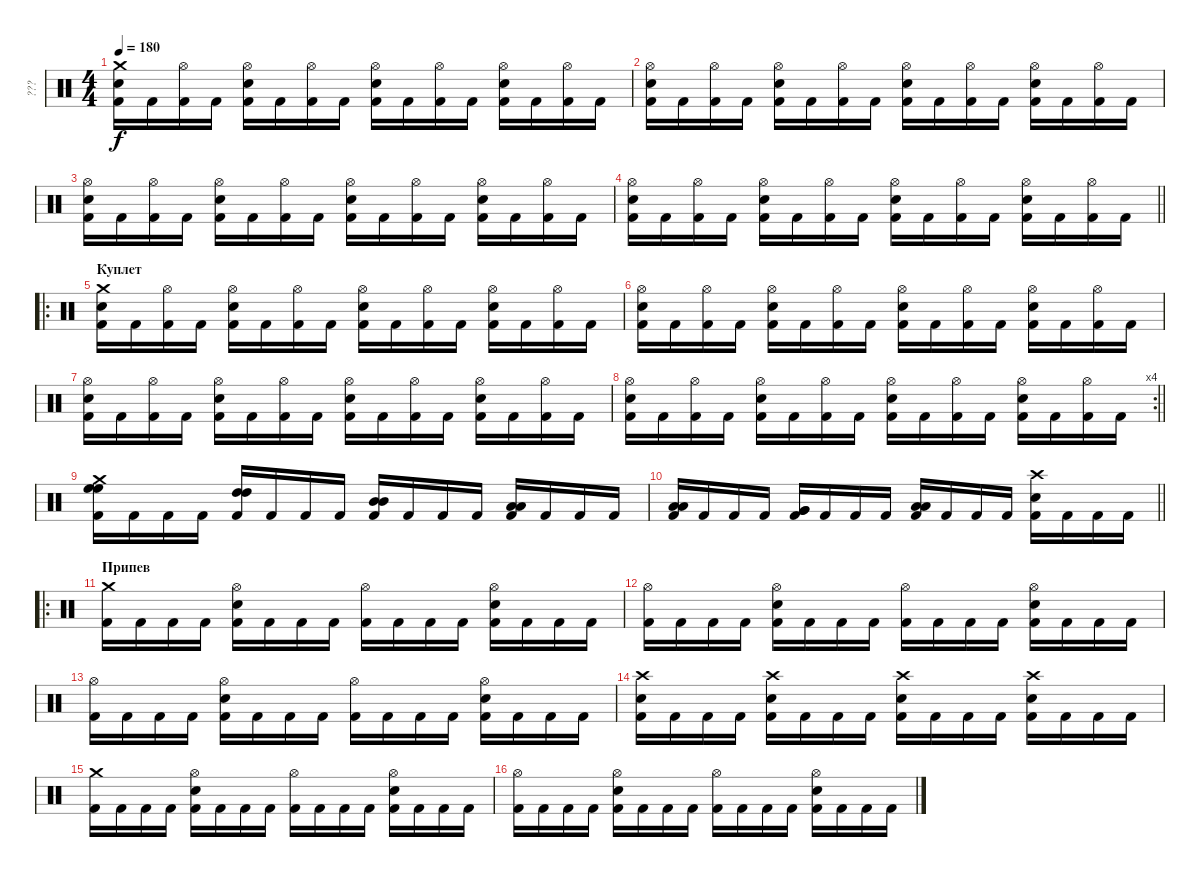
\track ("???" "???") {instrument percussion}
\staff {score}
\articulation defaults
\ts (4 4)
\tempo 180
\clef neutral
\ks c
("Crash medium (hit)" "Kick (hit) 2" "Snare (hit) 2").16{dy f} "Kick (hit) 2".16 ("Hi-Hat (open)" "Kick (hit) 2").16 "Kick (hit) 2".16 ("Hi-Hat (open)" "Kick (hit) 2" "Snare (hit) 2").16 "Kick (hit) 2".16 ("Hi-Hat (open)" "Kick (hit) 2").16 "Kick (hit) 2".16 ("Hi-Hat (open)" "Kick (hit) 2" "Snare (hit) 2").16 "Kick (hit) 2".16 ("Hi-Hat (open)" "Kick (hit) 2").16 "Kick (hit) 2".16 ("Hi-Hat (open)" "Kick (hit) 2" "Snare (hit) 2").16 "Kick (hit) 2".16 ("Hi-Hat (open)" "Kick (hit) 2").16 "Kick (hit) 2".16 |
("Hi-Hat (open)" "Kick (hit) 2" "Snare (hit) 2").16 "Kick (hit) 2".16 ("Hi-Hat (open)" "Kick (hit) 2").16 "Kick (hit) 2".16 ("Hi-Hat (open)" "Kick (hit) 2" "Snare (hit) 2").16 "Kick (hit) 2".16 ("Hi-Hat (open)" "Kick (hit) 2").16 "Kick (hit) 2".16 ("Hi-Hat (open)" "Kick (hit) 2" "Snare (hit) 2").16 "Kick (hit) 2".16 ("Hi-Hat (open)" "Kick (hit) 2").16 "Kick (hit) 2".16 ("Hi-Hat (open)" "Kick (hit) 2" "Snare (hit) 2").16 "Kick (hit) 2".16 ("Hi-Hat (open)" "Kick (hit) 2").16 "Kick (hit) 2".16 |
("Hi-Hat (open)" "Kick (hit) 2" "Snare (hit) 2").16 "Kick (hit) 2".16 ("Hi-Hat (open)" "Kick (hit) 2").16 "Kick (hit) 2".16 ("Hi-Hat (open)" "Kick (hit) 2" "Snare (hit) 2").16 "Kick (hit) 2".16 ("Hi-Hat (open)" "Kick (hit) 2").16 "Kick (hit) 2".16 ("Hi-Hat (open)" "Kick (hit) 2" "Snare (hit) 2").16 "Kick (hit) 2".16 ("Hi-Hat (open)" "Kick (hit) 2").16 "Kick (hit) 2".16 ("Hi-Hat (open)" "Kick (hit) 2" "Snare (hit) 2").16 "Kick (hit) 2".16 ("Hi-Hat (open)" "Kick (hit) 2").16 "Kick (hit) 2".16 |
\barLineRight lightlight
("Hi-Hat (open)" "Kick (hit) 2" "Snare (hit) 2").16 "Kick (hit) 2".16 ("Hi-Hat (open)" "Kick (hit) 2").16 "Kick (hit) 2".16 ("Hi-Hat (open)" "Kick (hit) 2" "Snare (hit) 2").16 "Kick (hit) 2".16 ("Hi-Hat (open)" "Kick (hit) 2").16 "Kick (hit) 2".16 ("Hi-Hat (open)" "Kick (hit) 2" "Snare (hit) 2").16 "Kick (hit) 2".16 ("Hi-Hat (open)" "Kick (hit) 2").16 "Kick (hit) 2".16 ("Hi-Hat (open)" "Kick (hit) 2" "Snare (hit) 2").16 "Kick (hit) 2".16 ("Hi-Hat (open)" "Kick (hit) 2").16 "Kick (hit) 2".16 |
\ro
\section ("" "Куплет")
("Crash medium (hit)" "Kick (hit) 2" "Snare (hit) 2").16 "Kick (hit) 2".16 ("Hi-Hat (open)" "Kick (hit) 2").16 "Kick (hit) 2".16 ("Hi-Hat (open)" "Kick (hit) 2" "Snare (hit) 2").16 "Kick (hit) 2".16 ("Hi-Hat (open)" "Kick (hit) 2").16 "Kick (hit) 2".16 ("Hi-Hat (open)" "Kick (hit) 2" "Snare (hit) 2").16 "Kick (hit) 2".16 ("Hi-Hat (open)" "Kick (hit) 2").16 "Kick (hit) 2".16 ("Hi-Hat (open)" "Kick (hit) 2" "Snare (hit) 2").16 "Kick (hit) 2".16 ("Hi-Hat (open)" "Kick (hit) 2").16 "Kick (hit) 2".16 |
("Hi-Hat (open)" "Kick (hit) 2" "Snare (hit) 2").16 "Kick (hit) 2".16 ("Hi-Hat (open)" "Kick (hit) 2").16 "Kick (hit) 2".16 ("Hi-Hat (open)" "Kick (hit) 2" "Snare (hit) 2").16 "Kick (hit) 2".16 ("Hi-Hat (open)" "Kick (hit) 2").16 "Kick (hit) 2".16 ("Hi-Hat (open)" "Kick (hit) 2" "Snare (hit) 2").16 "Kick (hit) 2".16 ("Hi-Hat (open)" "Kick (hit) 2").16 "Kick (hit) 2".16 ("Hi-Hat (open)" "Kick (hit) 2" "Snare (hit) 2").16 "Kick (hit) 2".16 ("Hi-Hat (open)" "Kick (hit) 2").16 "Kick (hit) 2".16 |
("Hi-Hat (open)" "Kick (hit) 2" "Snare (hit) 2").16 "Kick (hit) 2".16 ("Hi-Hat (open)" "Kick (hit) 2").16 "Kick (hit) 2".16 ("Hi-Hat (open)" "Kick (hit) 2" "Snare (hit) 2").16 "Kick (hit) 2".16 ("Hi-Hat (open)" "Kick (hit) 2").16 "Kick (hit) 2".16 ("Hi-Hat (open)" "Kick (hit) 2" "Snare (hit) 2").16 "Kick (hit) 2".16 ("Hi-Hat (open)" "Kick (hit) 2").16 "Kick (hit) 2".16 ("Hi-Hat (open)" "Kick (hit) 2" "Snare (hit) 2").16 "Kick (hit) 2".16 ("Hi-Hat (open)" "Kick (hit) 2").16 "Kick (hit) 2".16 |
\rc 4
\barLineRight lightlight
("Hi-Hat (open)" "Kick (hit) 2" "Snare (hit) 2").16 "Kick (hit) 2".16 ("Hi-Hat (open)" "Kick (hit) 2").16 "Kick (hit) 2".16 ("Hi-Hat (open)" "Kick (hit) 2" "Snare (hit) 2").16 "Kick (hit) 2".16 ("Hi-Hat (open)" "Kick (hit) 2").16 "Kick (hit) 2".16 ("Hi-Hat (open)" "Kick (hit) 2" "Snare (hit) 2").16 "Kick (hit) 2".16 ("Hi-Hat (open)" "Kick (hit) 2").16 "Kick (hit) 2".16 ("Hi-Hat (open)" "Kick (hit) 2" "Snare (hit) 2").16 "Kick (hit) 2".16 ("Hi-Hat (open)" "Kick (hit) 2").16 "Kick (hit) 2".16 |
("Crash medium (hit)" "Kick (hit) 2" "High Floor Tom (hit)" "High Floor Tom (hit)").16 "Kick (hit) 2".16 "Kick (hit) 2".16 "Kick (hit) 2".16 ("Kick (hit) 2" "High Tom (hit)" "High Tom (hit)").16 "Kick (hit) 2".16 "Kick (hit) 2".16 "Kick (hit) 2".16 ("Kick (hit) 2" "Mid Tom (hit)" "Mid Tom (hit)").16 "Kick (hit) 2".16 "Kick (hit) 2".16 "Kick (hit) 2".16 ("Kick (hit) 2" "Low Tom (hit)" "Low Tom (hit)").16 "Kick (hit) 2".16 "Kick (hit) 2".16 "Kick (hit) 2".16 |
\barLineRight lightlight
("Kick (hit) 2" "Low Tom (hit)" "Low Tom (hit)").16 "Kick (hit) 2".16 "Kick (hit) 2".16 "Kick (hit) 2".16 ("Kick (hit) 2" "Very Low Tom (hit)" "Very Low Tom (hit)").16 "Kick (hit) 2".16 "Kick (hit) 2".16 "Kick (hit) 2".16 ("Kick (hit) 2" "Low Floor Tom (hit)" "Low Floor Tom (hit)").16 "Kick (hit) 2".16 "Kick (hit) 2".16 "Kick (hit) 2".16 ("Crash high (hit)" "Kick (hit) 2" "Snare (hit) 2").16 "Kick (hit) 2".16 "Kick (hit) 2".16 "Kick (hit) 2".16 |
\ro
\section ("" "Припев")
("Crash medium (hit)" "Kick (hit) 2").16 "Kick (hit) 2".16 "Kick (hit) 2".16 "Kick (hit) 2".16 ("Hi-Hat (open)" "Kick (hit) 2" "Snare (hit) 2").16 "Kick (hit) 2".16 "Kick (hit) 2".16 "Kick (hit) 2".16 ("Hi-Hat (open)" "Kick (hit) 2").16 "Kick (hit) 2".16 "Kick (hit) 2".16 "Kick (hit) 2".16 ("Hi-Hat (open)" "Kick (hit) 2" "Snare (hit) 2").16 "Kick (hit) 2".16 "Kick (hit) 2".16 "Kick (hit) 2".16 |
("Hi-Hat (open)" "Kick (hit) 2").16 "Kick (hit) 2".16 "Kick (hit) 2".16 "Kick (hit) 2".16 ("Hi-Hat (open)" "Kick (hit) 2" "Snare (hit) 2").16 "Kick (hit) 2".16 "Kick (hit) 2".16 "Kick (hit) 2".16 ("Hi-Hat (open)" "Kick (hit) 2").16 "Kick (hit) 2".16 "Kick (hit) 2".16 "Kick (hit) 2".16 ("Hi-Hat (open)" "Kick (hit) 2" "Snare (hit) 2").16 "Kick (hit) 2".16 "Kick (hit) 2".16 "Kick (hit) 2".16 |
("Hi-Hat (open)" "Kick (hit) 2").16 "Kick (hit) 2".16 "Kick (hit) 2".16 "Kick (hit) 2".16 ("Hi-Hat (open)" "Kick (hit) 2" "Snare (hit) 2").16 "Kick (hit) 2".16 "Kick (hit) 2".16 "Kick (hit) 2".16 ("Hi-Hat (open)" "Kick (hit) 2").16 "Kick (hit) 2".16 "Kick (hit) 2".16 "Kick (hit) 2".16 ("Hi-Hat (open)" "Kick (hit) 2" "Snare (hit) 2").16 "Kick (hit) 2".16 "Kick (hit) 2".16 "Kick (hit) 2".16 |
("Crash high (hit)" "Kick (hit) 2" "Snare (hit) 2").16 "Kick (hit) 2".16 "Kick (hit) 2".16 "Kick (hit) 2".16 ("Crash high (hit)" "Kick (hit) 2" "Snare (hit) 2").16 "Kick (hit) 2".16 "Kick (hit) 2".16 "Kick (hit) 2".16 ("Crash high (hit)" "Kick (hit) 2" "Snare (hit) 2").16 "Kick (hit) 2".16 "Kick (hit) 2".16 "Kick (hit) 2".16 ("Crash high (hit)" "Kick (hit) 2" "Snare (hit) 2").16 "Kick (hit) 2".16 "Kick (hit) 2".16 "Kick (hit) 2".16 |
("Crash medium (hit)" "Kick (hit) 2").16 "Kick (hit) 2".16 "Kick (hit) 2".16 "Kick (hit) 2".16 ("Hi-Hat (open)" "Kick (hit) 2" "Snare (hit) 2").16 "Kick (hit) 2".16 "Kick (hit) 2".16 "Kick (hit) 2".16 ("Hi-Hat (open)" "Kick (hit) 2").16 "Kick (hit) 2".16 "Kick (hit) 2".16 "Kick (hit) 2".16 ("Hi-Hat (open)" "Kick (hit) 2" "Snare (hit) 2").16 "Kick (hit) 2".16 "Kick (hit) 2".16 "Kick (hit) 2".16 |
("Hi-Hat (open)" "Kick (hit) 2").16 "Kick (hit) 2".16 "Kick (hit) 2".16 "Kick (hit) 2".16 ("Hi-Hat (open)" "Kick (hit) 2" "Snare (hit) 2").16 "Kick (hit) 2".16 "Kick (hit) 2".16 "Kick (hit) 2".16 ("Hi-Hat (open)" "Kick (hit) 2").16 "Kick (hit) 2".16 "Kick (hit) 2".16 "Kick (hit) 2".16 ("Hi-Hat (open)" "Kick (hit) 2" "Snare (hit) 2").16 "Kick (hit) 2".16 "Kick (hit) 2".16 "Kick (hit) 2".16
